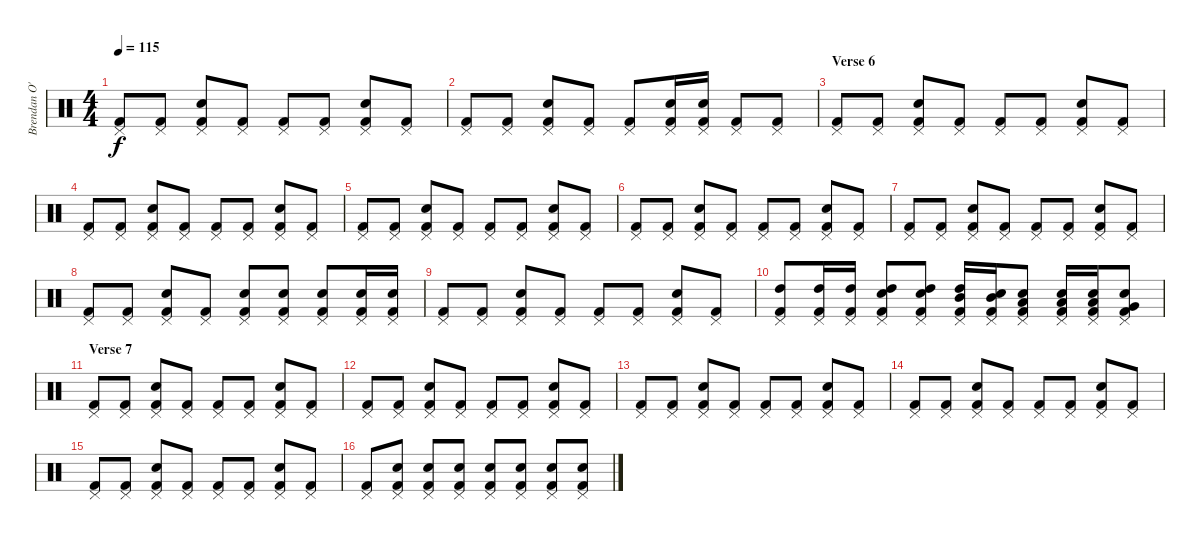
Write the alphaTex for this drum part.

\track ("Brendan O'Neill" "Brendan O'") {instrument percussion}
\staff {score}
\articulation defaults
\ts (4 4)
\tempo 115
\clef neutral
\ks c
("Pedal Hi-Hat (hit)" "Kick (hit) 2").8{dy f} ("Pedal Hi-Hat (hit)" "Kick (hit) 2").8 ("Pedal Hi-Hat (hit)" "Snare (hit) 2" "Kick (hit) 2").8 ("Pedal Hi-Hat (hit)" "Kick (hit) 2").8 ("Pedal Hi-Hat (hit)" "Kick (hit) 2").8 ("Pedal Hi-Hat (hit)" "Kick (hit) 2").8 ("Pedal Hi-Hat (hit)" "Snare (hit) 2" "Kick (hit) 2").8 ("Pedal Hi-Hat (hit)" "Kick (hit) 2").8 |
("Pedal Hi-Hat (hit)" "Kick (hit) 2").8 ("Pedal Hi-Hat (hit)" "Kick (hit) 2").8 ("Pedal Hi-Hat (hit)" "Snare (hit) 2" "Kick (hit) 2").8 ("Pedal Hi-Hat (hit)" "Kick (hit) 2").8 ("Pedal Hi-Hat (hit)" "Kick (hit) 2").8 ("Pedal Hi-Hat (hit)" "Snare (hit) 2" "Kick (hit) 2").16 ("Pedal Hi-Hat (hit)" "Snare (hit) 2" "Kick (hit) 2").16 ("Pedal Hi-Hat (hit)" "Kick (hit) 2").8 ("Pedal Hi-Hat (hit)" "Kick (hit) 2").8 |
\section ("" "Verse 6")
("Pedal Hi-Hat (hit)" "Kick (hit) 2").8 ("Pedal Hi-Hat (hit)" "Kick (hit) 2").8 ("Pedal Hi-Hat (hit)" "Snare (hit) 2" "Kick (hit) 2").8 ("Pedal Hi-Hat (hit)" "Kick (hit) 2").8 ("Pedal Hi-Hat (hit)" "Kick (hit) 2").8 ("Pedal Hi-Hat (hit)" "Kick (hit) 2").8 ("Pedal Hi-Hat (hit)" "Snare (hit) 2" "Kick (hit) 2").8 ("Pedal Hi-Hat (hit)" "Kick (hit) 2").8 |
("Pedal Hi-Hat (hit)" "Kick (hit) 2").8 ("Pedal Hi-Hat (hit)" "Kick (hit) 2").8 ("Pedal Hi-Hat (hit)" "Snare (hit) 2" "Kick (hit) 2").8 ("Pedal Hi-Hat (hit)" "Kick (hit) 2").8 ("Pedal Hi-Hat (hit)" "Kick (hit) 2").8 ("Pedal Hi-Hat (hit)" "Kick (hit) 2").8 ("Pedal Hi-Hat (hit)" "Snare (hit) 2" "Kick (hit) 2").8 ("Pedal Hi-Hat (hit)" "Kick (hit) 2").8 |
("Pedal Hi-Hat (hit)" "Kick (hit) 2").8 ("Pedal Hi-Hat (hit)" "Kick (hit) 2").8 ("Pedal Hi-Hat (hit)" "Snare (hit) 2" "Kick (hit) 2").8 ("Pedal Hi-Hat (hit)" "Kick (hit) 2").8 ("Pedal Hi-Hat (hit)" "Kick (hit) 2").8 ("Pedal Hi-Hat (hit)" "Kick (hit) 2").8 ("Pedal Hi-Hat (hit)" "Snare (hit) 2" "Kick (hit) 2").8 ("Pedal Hi-Hat (hit)" "Kick (hit) 2").8 |
("Pedal Hi-Hat (hit)" "Kick (hit) 2").8 ("Pedal Hi-Hat (hit)" "Kick (hit) 2").8 ("Pedal Hi-Hat (hit)" "Snare (hit) 2" "Kick (hit) 2").8 ("Pedal Hi-Hat (hit)" "Kick (hit) 2").8 ("Pedal Hi-Hat (hit)" "Kick (hit) 2").8 ("Pedal Hi-Hat (hit)" "Kick (hit) 2").8 ("Pedal Hi-Hat (hit)" "Snare (hit) 2" "Kick (hit) 2").8 ("Pedal Hi-Hat (hit)" "Kick (hit) 2").8 |
("Pedal Hi-Hat (hit)" "Kick (hit) 2").8 ("Pedal Hi-Hat (hit)" "Kick (hit) 2").8 ("Pedal Hi-Hat (hit)" "Snare (hit) 2" "Kick (hit) 2").8 ("Pedal Hi-Hat (hit)" "Kick (hit) 2").8 ("Pedal Hi-Hat (hit)" "Kick (hit) 2").8 ("Pedal Hi-Hat (hit)" "Kick (hit) 2").8 ("Pedal Hi-Hat (hit)" "Snare (hit) 2" "Kick (hit) 2").8 ("Pedal Hi-Hat (hit)" "Kick (hit) 2").8 |
("Pedal Hi-Hat (hit)" "Kick (hit) 2").8 ("Pedal Hi-Hat (hit)" "Kick (hit) 2").8 ("Pedal Hi-Hat (hit)" "Snare (hit) 2" "Kick (hit) 2").8 ("Pedal Hi-Hat (hit)" "Kick (hit) 2").8 ("Pedal Hi-Hat (hit)" "Snare (hit) 2" "Kick (hit) 2").8 ("Pedal Hi-Hat (hit)" "Electric Snare (hit)" "Kick (hit) 2").8 ("Pedal Hi-Hat (hit)" "Electric Snare (hit)" "Kick (hit) 2").8 ("Pedal Hi-Hat (hit)" "Snare (hit) 2" "Kick (hit) 2").16 ("Pedal Hi-Hat (hit)" "Snare (hit) 2" "Kick (hit) 2").16 |
("Pedal Hi-Hat (hit)" "Kick (hit) 2").8 ("Pedal Hi-Hat (hit)" "Kick (hit) 2").8 ("Pedal Hi-Hat (hit)" "Snare (hit) 2" "Kick (hit) 2").8 ("Pedal Hi-Hat (hit)" "Kick (hit) 2").8 ("Pedal Hi-Hat (hit)" "Kick (hit) 2").8 ("Pedal Hi-Hat (hit)" "Kick (hit) 2").8 ("Pedal Hi-Hat (hit)" "Snare (hit) 2" "Kick (hit) 2").8 ("Pedal Hi-Hat (hit)" "Kick (hit) 2").8 |
("High Tom (hit)" "Pedal Hi-Hat (hit)" "Kick (hit) 2").8 ("High Tom (hit)" "Pedal Hi-Hat (hit)" "Kick (hit) 2").16 ("High Tom (hit)" "Pedal Hi-Hat (hit)" "Kick (hit) 2").16 ("High Tom (hit)" "Pedal Hi-Hat (hit)" "Snare (hit) 2" "Kick (hit) 2").8 ("High Tom (hit)" "Pedal Hi-Hat (hit)" "Electric Snare (hit)" "Kick (hit) 2").8 ("Mid Tom (hit)" "Pedal Hi-Hat (hit)" "High Tom (hit)" "Kick (hit) 2").16 ("Mid Tom (hit)" "Pedal Hi-Hat (hit)" "Snare (hit) 2" "Kick (hit) 2").16 ("Low Tom (hit)" "Pedal Hi-Hat (hit)" "Snare (hit) 2" "Kick (hit) 2").8 ("Low Tom (hit)" "Pedal Hi-Hat (hit)" "Electric Snare (hit)" "Kick (hit) 2").16 ("Low Tom (hit)" "Pedal Hi-Hat (hit)" "Electric Snare (hit)" "Kick (hit) 2").16 ("Very Low Tom (hit)" "Pedal Hi-Hat (hit)" "Electric Snare (hit)" "Kick (hit) 2").8 |
\section ("" "Verse 7")
("Pedal Hi-Hat (hit)" "Kick (hit) 2").8 ("Pedal Hi-Hat (hit)" "Kick (hit) 2").8 ("Pedal Hi-Hat (hit)" "Snare (hit) 2" "Kick (hit) 2").8 ("Pedal Hi-Hat (hit)" "Kick (hit) 2").8 ("Pedal Hi-Hat (hit)" "Kick (hit) 2").8 ("Pedal Hi-Hat (hit)" "Kick (hit) 2").8 ("Pedal Hi-Hat (hit)" "Snare (hit) 2" "Kick (hit) 2").8 ("Pedal Hi-Hat (hit)" "Kick (hit) 2").8 |
("Pedal Hi-Hat (hit)" "Kick (hit) 2").8 ("Pedal Hi-Hat (hit)" "Kick (hit) 2").8 ("Pedal Hi-Hat (hit)" "Snare (hit) 2" "Kick (hit) 2").8 ("Pedal Hi-Hat (hit)" "Kick (hit) 2").8 ("Pedal Hi-Hat (hit)" "Kick (hit) 2").8 ("Pedal Hi-Hat (hit)" "Kick (hit) 2").8 ("Pedal Hi-Hat (hit)" "Snare (hit) 2" "Kick (hit) 2").8 ("Pedal Hi-Hat (hit)" "Kick (hit) 2").8 |
("Pedal Hi-Hat (hit)" "Kick (hit) 2").8 ("Pedal Hi-Hat (hit)" "Kick (hit) 2").8 ("Pedal Hi-Hat (hit)" "Snare (hit) 2" "Kick (hit) 2").8 ("Pedal Hi-Hat (hit)" "Kick (hit) 2").8 ("Pedal Hi-Hat (hit)" "Kick (hit) 2").8 ("Pedal Hi-Hat (hit)" "Kick (hit) 2").8 ("Pedal Hi-Hat (hit)" "Snare (hit) 2" "Kick (hit) 2").8 ("Pedal Hi-Hat (hit)" "Kick (hit) 2").8 |
("Pedal Hi-Hat (hit)" "Kick (hit) 2").8 ("Pedal Hi-Hat (hit)" "Kick (hit) 2").8 ("Pedal Hi-Hat (hit)" "Snare (hit) 2" "Kick (hit) 2").8 ("Pedal Hi-Hat (hit)" "Kick (hit) 2").8 ("Pedal Hi-Hat (hit)" "Kick (hit) 2").8 ("Pedal Hi-Hat (hit)" "Kick (hit) 2").8 ("Pedal Hi-Hat (hit)" "Snare (hit) 2" "Kick (hit) 2").8 ("Pedal Hi-Hat (hit)" "Kick (hit) 2").8 |
("Pedal Hi-Hat (hit)" "Kick (hit) 2").8 ("Pedal Hi-Hat (hit)" "Kick (hit) 2").8 ("Pedal Hi-Hat (hit)" "Snare (hit) 2" "Kick (hit) 2").8 ("Pedal Hi-Hat (hit)" "Kick (hit) 2").8 ("Pedal Hi-Hat (hit)" "Kick (hit) 2").8 ("Pedal Hi-Hat (hit)" "Kick (hit) 2").8 ("Pedal Hi-Hat (hit)" "Snare (hit) 2" "Kick (hit) 2").8 ("Pedal Hi-Hat (hit)" "Kick (hit) 2").8 |
("Pedal Hi-Hat (hit)" "Kick (hit) 2").8 ("Pedal Hi-Hat (hit)" "Snare (hit) 2" "Kick (hit) 2").8 ("Pedal Hi-Hat (hit)" "Snare (hit) 2" "Kick (hit) 2").8 ("Pedal Hi-Hat (hit)" "Snare (hit) 2" "Kick (hit) 2").8 ("Pedal Hi-Hat (hit)" "Snare (hit) 2" "Kick (hit) 2").8 ("Pedal Hi-Hat (hit)" "Snare (hit) 2" "Kick (hit) 2").8 ("Pedal Hi-Hat (hit)" "Snare (hit) 2" "Kick (hit) 2").8 ("Pedal Hi-Hat (hit)" "Snare (hit) 2" "Kick (hit) 2").8
